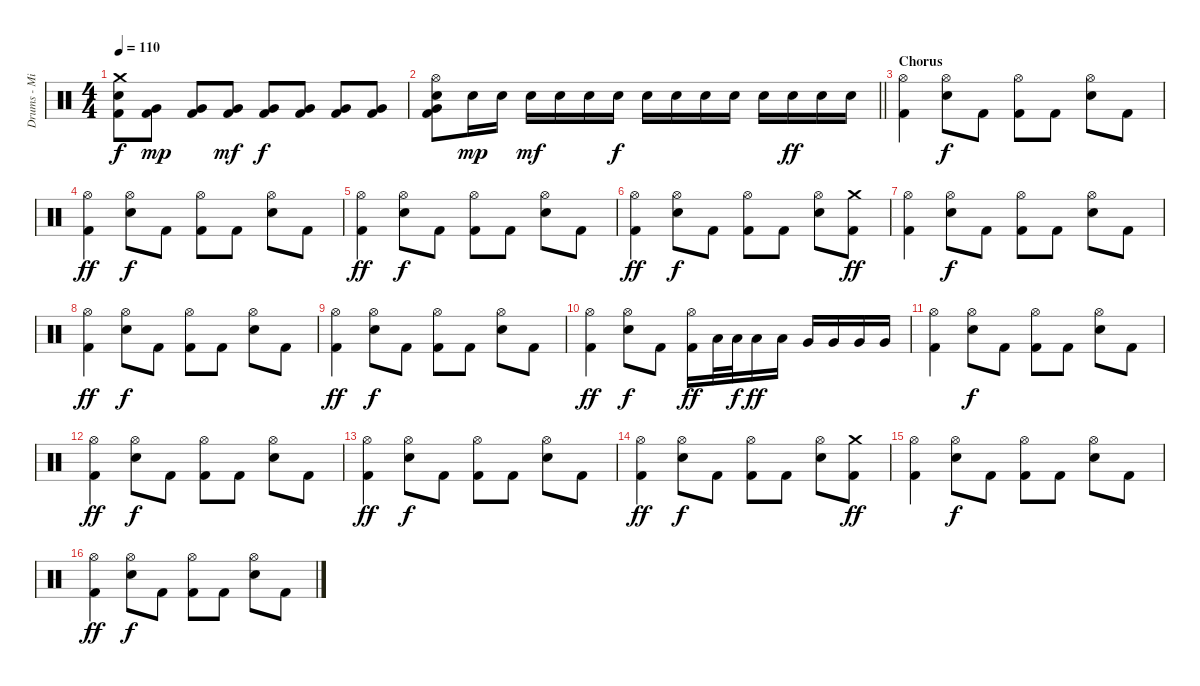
\track ("Drums - Mikko" "Drums - Mi") {instrument percussion}
\staff {score}
\articulation defaults
\ts (4 4)
\tempo 110
\clef neutral
\ks c
("Crash medium (hit)" "Snare (hit) 2" "Kick (hit) 2").8{dy f} ("Very Low Tom (hit)" "Kick (hit) 2").8{dy mp} ("Very Low Tom (hit)" "Kick (hit) 2").8 ("Very Low Tom (hit)" "Kick (hit) 2").8{dy mf} ("Very Low Tom (hit)" "Kick (hit) 2").8{dy f} ("Very Low Tom (hit)" "Kick (hit) 2").8 ("Very Low Tom (hit)" "Kick (hit) 2").8 ("Very Low Tom (hit)" "Kick (hit) 2").8 |
\barLineRight lightlight
("Hi-Hat (open)" "Snare (hit) 2" "Very Low Tom (hit)" "Kick (hit) 2").8 "Snare (hit) 2".16{dy mp} "Snare (hit) 2".16 "Snare (hit) 2".16{dy mf} "Snare (hit) 2".16 "Snare (hit) 2".16 "Snare (hit) 2".16{dy f} "Snare (hit) 2".16 "Snare (hit) 2".16 "Snare (hit) 2".16 "Snare (hit) 2".16 "Snare (hit) 2".16 "Snare (hit) 2".16{dy ff} "Snare (hit) 2".16 "Snare (hit) 2".16 |
\section ("" "Chorus")
("Hi-Hat (open)" "Kick (hit) 2").4 ("Hi-Hat (open)" "Snare (hit) 2").8{dy f} "Kick (hit) 2".8 ("Hi-Hat (open)" "Kick (hit) 2").8 "Kick (hit) 2".8 ("Hi-Hat (open)" "Snare (hit) 2").8 "Kick (hit) 2".8 |
("Hi-Hat (open)" "Kick (hit) 2").4{dy ff} ("Hi-Hat (open)" "Snare (hit) 2").8{dy f} "Kick (hit) 2".8 ("Hi-Hat (open)" "Kick (hit) 2").8 "Kick (hit) 2".8 ("Hi-Hat (open)" "Snare (hit) 2").8 "Kick (hit) 2".8 |
("Hi-Hat (open)" "Kick (hit) 2").4{dy ff} ("Hi-Hat (open)" "Snare (hit) 2").8{dy f} "Kick (hit) 2".8 ("Hi-Hat (open)" "Kick (hit) 2").8 "Kick (hit) 2".8 ("Hi-Hat (open)" "Snare (hit) 2").8 "Kick (hit) 2".8 |
("Hi-Hat (open)" "Kick (hit) 2").4{dy ff} ("Hi-Hat (open)" "Snare (hit) 2").8{dy f} "Kick (hit) 2".8 ("Hi-Hat (open)" "Kick (hit) 2").8 "Kick (hit) 2".8 ("Hi-Hat (open)" "Snare (hit) 2").8 ("Crash medium (hit)" "Kick (hit) 2").8{dy ff} |
("Hi-Hat (open)" "Kick (hit) 2").4 ("Hi-Hat (open)" "Snare (hit) 2").8{dy f} "Kick (hit) 2".8 ("Hi-Hat (open)" "Kick (hit) 2").8 "Kick (hit) 2".8 ("Hi-Hat (open)" "Snare (hit) 2").8 "Kick (hit) 2".8 |
("Hi-Hat (open)" "Kick (hit) 2").4{dy ff} ("Hi-Hat (open)" "Snare (hit) 2").8{dy f} "Kick (hit) 2".8 ("Hi-Hat (open)" "Kick (hit) 2").8 "Kick (hit) 2".8 ("Hi-Hat (open)" "Snare (hit) 2").8 "Kick (hit) 2".8 |
("Hi-Hat (open)" "Kick (hit) 2").4{dy ff} ("Hi-Hat (open)" "Snare (hit) 2").8{dy f} "Kick (hit) 2".8 ("Hi-Hat (open)" "Kick (hit) 2").8 "Kick (hit) 2".8 ("Hi-Hat (open)" "Snare (hit) 2").8 "Kick (hit) 2".8 |
("Hi-Hat (open)" "Kick (hit) 2").4{dy ff} ("Hi-Hat (open)" "Snare (hit) 2").8{dy f} "Kick (hit) 2".8 ("Hi-Hat (open)" "Kick (hit) 2").16{dy ff} "Low Tom (hit)".32 "Low Tom (hit)".32{dy f} "Low Tom (hit)".16{dy ff} "Low Tom (hit)".16 "Very Low Tom (hit)".16 "Very Low Tom (hit)".16 "Very Low Tom (hit)".16 "Very Low Tom (hit)".16 |
("Hi-Hat (open)" "Kick (hit) 2").4 ("Hi-Hat (open)" "Snare (hit) 2").8{dy f} "Kick (hit) 2".8 ("Hi-Hat (open)" "Kick (hit) 2").8 "Kick (hit) 2".8 ("Hi-Hat (open)" "Snare (hit) 2").8 "Kick (hit) 2".8 |
("Hi-Hat (open)" "Kick (hit) 2").4{dy ff} ("Hi-Hat (open)" "Snare (hit) 2").8{dy f} "Kick (hit) 2".8 ("Hi-Hat (open)" "Kick (hit) 2").8 "Kick (hit) 2".8 ("Hi-Hat (open)" "Snare (hit) 2").8 "Kick (hit) 2".8 |
("Hi-Hat (open)" "Kick (hit) 2").4{dy ff} ("Hi-Hat (open)" "Snare (hit) 2").8{dy f} "Kick (hit) 2".8 ("Hi-Hat (open)" "Kick (hit) 2").8 "Kick (hit) 2".8 ("Hi-Hat (open)" "Snare (hit) 2").8 "Kick (hit) 2".8 |
("Hi-Hat (open)" "Kick (hit) 2").4{dy ff} ("Hi-Hat (open)" "Snare (hit) 2").8{dy f} "Kick (hit) 2".8 ("Hi-Hat (open)" "Kick (hit) 2").8 "Kick (hit) 2".8 ("Hi-Hat (open)" "Snare (hit) 2").8 ("Crash medium (hit)" "Kick (hit) 2").8{dy ff} |
("Hi-Hat (open)" "Kick (hit) 2").4 ("Hi-Hat (open)" "Snare (hit) 2").8{dy f} "Kick (hit) 2".8 ("Hi-Hat (open)" "Kick (hit) 2").8 "Kick (hit) 2".8 ("Hi-Hat (open)" "Snare (hit) 2").8 "Kick (hit) 2".8 |
("Hi-Hat (open)" "Kick (hit) 2").4{dy ff} ("Hi-Hat (open)" "Snare (hit) 2").8{dy f} "Kick (hit) 2".8 ("Hi-Hat (open)" "Kick (hit) 2").8 "Kick (hit) 2".8 ("Hi-Hat (open)" "Snare (hit) 2").8 "Kick (hit) 2".8
